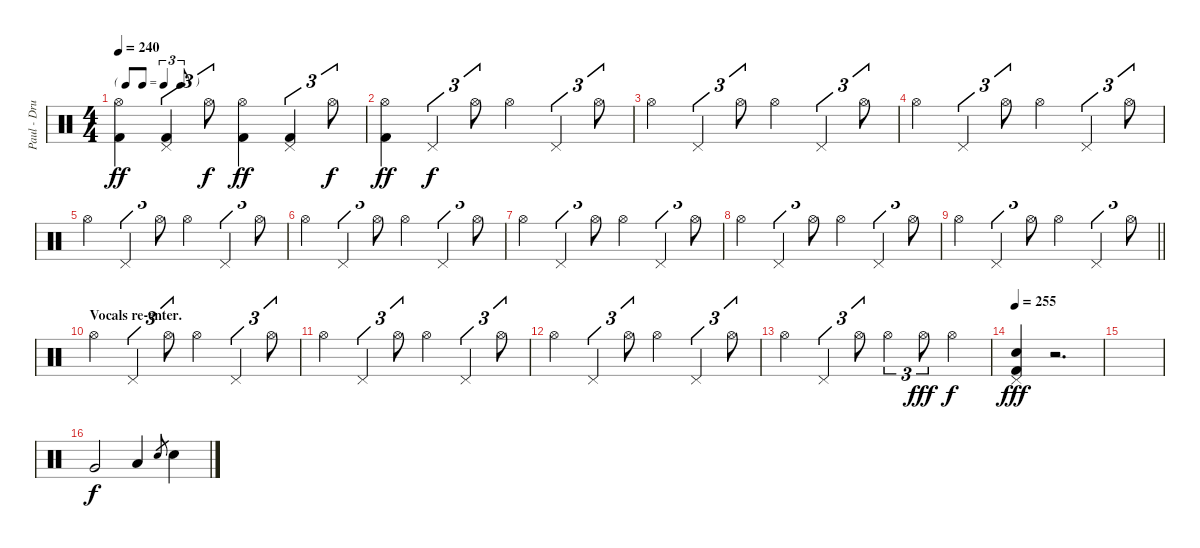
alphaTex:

\track ("Paul - Drums" "Paul - Dru") {instrument percussion}
\staff {score}
\articulation defaults
\ts (4 4)
\tf triplet8th
\tempo 240
\clef neutral
\ks c
("Hi-Hat (open)" "Kick (hit) 2").4{dy ff} ("Pedal Hi-Hat (hit)" "Kick (hit) 2").4{tu (3 2)} "Hi-Hat (open)".8{tu (3 2) dy f} ("Hi-Hat (open)" "Kick (hit) 2").4{dy ff} ("Pedal Hi-Hat (hit)" "Kick (hit) 2").4{tu (3 2)} "Hi-Hat (open)".8{tu (3 2) dy f} |
("Hi-Hat (open)" "Kick (hit) 2").4{dy ff} "Pedal Hi-Hat (hit)".4{tu (3 2) dy f} "Hi-Hat (open)".8{tu (3 2)} "Hi-Hat (open)".4 "Pedal Hi-Hat (hit)".4{tu (3 2)} "Hi-Hat (open)".8{tu (3 2)} |
"Hi-Hat (open)".4 "Pedal Hi-Hat (hit)".4{tu (3 2)} "Hi-Hat (open)".8{tu (3 2)} "Hi-Hat (open)".4 "Pedal Hi-Hat (hit)".4{tu (3 2)} "Hi-Hat (open)".8{tu (3 2)} |
"Hi-Hat (open)".4 "Pedal Hi-Hat (hit)".4{tu (3 2)} "Hi-Hat (open)".8{tu (3 2)} "Hi-Hat (open)".4 "Pedal Hi-Hat (hit)".4{tu (3 2)} "Hi-Hat (open)".8{tu (3 2)} |
"Hi-Hat (open)".4 "Pedal Hi-Hat (hit)".4{tu (3 2)} "Hi-Hat (open)".8{tu (3 2)} "Hi-Hat (open)".4 "Pedal Hi-Hat (hit)".4{tu (3 2)} "Hi-Hat (open)".8{tu (3 2)} |
"Hi-Hat (open)".4 "Pedal Hi-Hat (hit)".4{tu (3 2)} "Hi-Hat (open)".8{tu (3 2)} "Hi-Hat (open)".4 "Pedal Hi-Hat (hit)".4{tu (3 2)} "Hi-Hat (open)".8{tu (3 2)} |
"Hi-Hat (open)".4 "Pedal Hi-Hat (hit)".4{tu (3 2)} "Hi-Hat (open)".8{tu (3 2)} "Hi-Hat (open)".4 "Pedal Hi-Hat (hit)".4{tu (3 2)} "Hi-Hat (open)".8{tu (3 2)} |
"Hi-Hat (open)".4 "Pedal Hi-Hat (hit)".4{tu (3 2)} "Hi-Hat (open)".8{tu (3 2)} "Hi-Hat (open)".4 "Pedal Hi-Hat (hit)".4{tu (3 2)} "Hi-Hat (open)".8{tu (3 2)} |
\barLineRight lightlight "Hi-Hat (open)".4 "Pedal Hi-Hat (hit)".4{tu (3 2)} "Hi-Hat (open)".8{tu (3 2)} "Hi-Hat (open)".4 "Pedal Hi-Hat (hit)".4{tu (3 2)} "Hi-Hat (open)".8{tu (3 2)}
|
\section ("" "Vocals re-enter.")
"Hi-Hat (open)".4 "Pedal Hi-Hat (hit)".4{tu (3 2)} "Hi-Hat (open)".8{tu (3 2)} "Hi-Hat (open)".4 "Pedal Hi-Hat (hit)".4{tu (3 2)} "Hi-Hat (open)".8{tu (3 2)} |
"Hi-Hat (open)".4 "Pedal Hi-Hat (hit)".4{tu (3 2)} "Hi-Hat (open)".8{tu (3 2)} "Hi-Hat (open)".4 "Pedal Hi-Hat (hit)".4{tu (3 2)} "Hi-Hat (open)".8{tu (3 2)} |
"Hi-Hat (open)".4 "Pedal Hi-Hat (hit)".4{tu (3 2)} "Hi-Hat (open)".8{tu (3 2)} "Hi-Hat (open)".4 "Pedal Hi-Hat (hit)".4{tu (3 2)} "Hi-Hat (open)".8{tu (3 2)} |
"Hi-Hat (open)".4 "Pedal Hi-Hat (hit)".4{tu (3 2)} "Hi-Hat (open)".8{tu (3 2)} "Hi-Hat (open)".4{tu (3 2)} "Hi-Hat (open)".8{tu (3 2) dy fff} "Hi-Hat (open)".4{dy f} |
\tempo 255
("Pedal Hi-Hat (hit)" "Electric Snare (hit)" "Kick (hit) 2").4{dy fff} r.2{d} |
|
"Very Low Tom (hit)".2{dy f} "Low Floor Tom (hit)".4 "Electric Snare (hit)".8{gr} "Electric Snare (hit)".4
